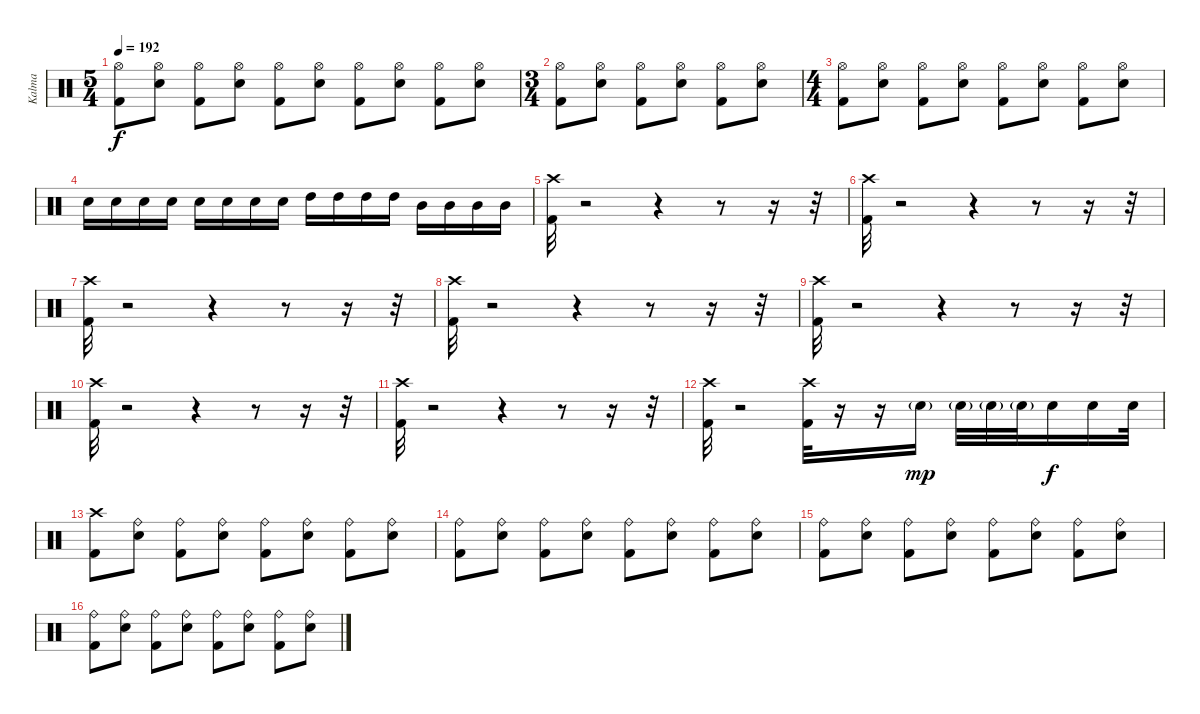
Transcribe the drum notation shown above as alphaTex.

\track ("Kalma" "Kalma") {instrument percussion}
\staff {score}
\articulation defaults
\ts (5 4)
\tempo 192
\clef neutral
\ks c
("Hi-Hat (open)" "Kick (hit) 2").8{dy f} ("Hi-Hat (open)" "Snare (hit) 2").8 ("Hi-Hat (open)" "Kick (hit) 2").8 ("Hi-Hat (open)" "Snare (hit) 2").8 ("Hi-Hat (open)" "Kick (hit) 2").8 ("Hi-Hat (open)" "Snare (hit) 2").8 ("Hi-Hat (open)" "Kick (hit) 2").8 ("Hi-Hat (open)" "Snare (hit) 2").8 ("Hi-Hat (open)" "Kick (hit) 2").8 ("Hi-Hat (open)" "Snare (hit) 2").8 |
\ts (3 4)
("Hi-Hat (open)" "Kick (hit) 2").8 ("Hi-Hat (open)" "Snare (hit) 2").8 ("Hi-Hat (open)" "Kick (hit) 2").8 ("Hi-Hat (open)" "Snare (hit) 2").8 ("Hi-Hat (open)" "Kick (hit) 2").8 ("Hi-Hat (open)" "Snare (hit) 2").8 |
\ts (4 4)
("Hi-Hat (open)" "Kick (hit) 2").8 ("Hi-Hat (open)" "Snare (hit) 2").8 ("Hi-Hat (open)" "Kick (hit) 2").8 ("Hi-Hat (open)" "Snare (hit) 2").8 ("Hi-Hat (open)" "Kick (hit) 2").8 ("Hi-Hat (open)" "Snare (hit) 2").8 ("Hi-Hat (open)" "Kick (hit) 2").8 ("Hi-Hat (open)" "Snare (hit) 2").8 |
"Snare (hit) 2".16 "Snare (hit) 2".16 "Snare (hit) 2".16 "Snare (hit) 2".16 "Snare (hit) 2".16 "Snare (hit) 2".16 "Snare (hit) 2".16 "Snare (hit) 2".16 "High Tom (hit)".16 "High Tom (hit)".16 "High Tom (hit)".16 "High Tom (hit)".16 "Mid Tom (hit)".16 "Mid Tom (hit)".16 "Mid Tom (hit)".16 "Mid Tom (hit)".16 |
("Crash high (hit)" "Kick (hit) 2").32 r.2 r.4 r.8 r.16 r.32 |
("Crash high (hit)" "Kick (hit) 2").32 r.2 r.4 r.8 r.16 r.32 |
("Crash high (hit)" "Kick (hit) 2").32 r.2 r.4 r.8 r.16 r.32 |
("Crash high (hit)" "Kick (hit) 2").32 r.2 r.4 r.8 r.16 r.32 |
("Crash high (hit)" "Kick (hit) 2").32 r.2 r.4 r.8 r.16 r.32 |
("Crash high (hit)" "Kick (hit) 2").32 r.2 r.4 r.8 r.16 r.32 |
("Crash high (hit)" "Kick (hit) 2").32 r.2 r.4 r.8 r.16 r.32 |
("Crash high (hit)" "Kick (hit) 2").32 r.2 ("Crash high (hit)" "Kick (hit) 2").32 r.16 r.16 "Snare (hit) 2"{g}.16{dy mp} "Snare (hit) 2"{g}.32 "Snare (hit) 2"{g}.32 "Snare (hit) 2"{g}.32 "Snare (hit) 2".16{dy f} "Snare (hit) 2".16 "Snare (hit) 2".32 |
("Crash high (hit)" "Kick (hit) 2").8 ("Ride (bell)" "Snare (hit) 2").8 ("Ride (bell)" "Kick (hit) 2").8 ("Ride (bell)" "Snare (hit) 2").8 ("Ride (bell)" "Kick (hit) 2").8 ("Ride (bell)" "Snare (hit) 2").8 ("Ride (bell)" "Kick (hit) 2").8 ("Ride (bell)" "Snare (hit) 2").8 |
("Ride (bell)" "Kick (hit) 2").8 ("Ride (bell)" "Snare (hit) 2").8 ("Ride (bell)" "Kick (hit) 2").8 ("Ride (bell)" "Snare (hit) 2").8 ("Ride (bell)" "Kick (hit) 2").8 ("Ride (bell)" "Snare (hit) 2").8 ("Ride (bell)" "Kick (hit) 2").8 ("Ride (bell)" "Snare (hit) 2").8 |
("Ride (bell)" "Kick (hit) 2").8 ("Ride (bell)" "Snare (hit) 2").8 ("Ride (bell)" "Kick (hit) 2").8 ("Ride (bell)" "Snare (hit) 2").8 ("Ride (bell)" "Kick (hit) 2").8 ("Ride (bell)" "Snare (hit) 2").8 ("Ride (bell)" "Kick (hit) 2").8 ("Ride (bell)" "Snare (hit) 2").8 |
("Ride (bell)" "Kick (hit) 2").8 ("Ride (bell)" "Snare (hit) 2").8 ("Ride (bell)" "Kick (hit) 2").8 ("Ride (bell)" "Snare (hit) 2").8 ("Ride (bell)" "Kick (hit) 2").8 ("Ride (bell)" "Snare (hit) 2").8 ("Ride (bell)" "Kick (hit) 2").8 ("Ride (bell)" "Snare (hit) 2").8
